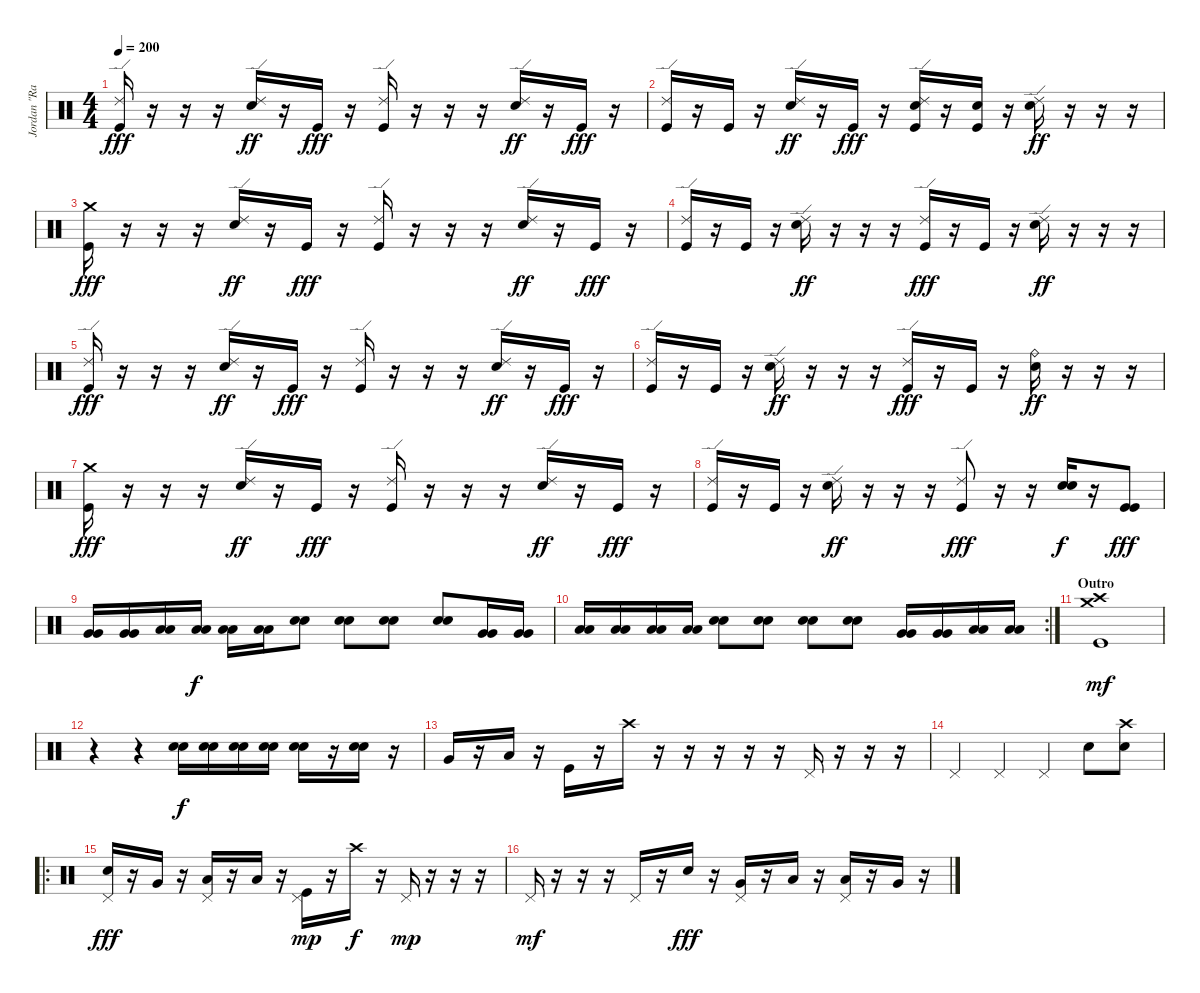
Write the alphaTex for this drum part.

\track ("Jordan \"Ratbeard\" Hastings" "Jordan \"Ra") {instrument percussion}
\staff {score}
\articulation defaults
\ts (4 4)
\tempo 200
\clef neutral
\ks c
("Ride (edge) 2" "Kick (hit)").16{dy fff} r.16 r.16 r.16 ("Ride (edge) 2" "Electric Snare (hit)").16{dy ff} r.16 "Kick (hit)".16{dy fff} r.16 ("Ride (edge) 2" "Kick (hit)").16 r.16 r.16 r.16 ("Ride (edge) 2" "Electric Snare (hit)").16{dy ff} r.16 "Kick (hit)".16{dy fff} r.16 |
("Ride (edge) 2" "Kick (hit)").16 r.16 "Kick (hit)".16 r.16 ("Ride (edge) 2" "Electric Snare (hit)").16{dy ff} r.16 "Kick (hit)".16{dy fff} r.16 ("Ride (edge) 2" "Electric Snare (hit)" "Kick (hit)").16 r.16 ("Electric Snare (hit)" "Kick (hit)").16 r.16 ("Ride (edge) 2" "Electric Snare (hit)").16{dy ff} r.16 r.16 r.16 |
("Crash medium (hit)" "Kick (hit)").16{dy fff} r.16 r.16 r.16 ("Ride (edge) 2" "Electric Snare (hit)").16{dy ff} r.16 "Kick (hit)".16{dy fff} r.16 ("Ride (edge) 2" "Kick (hit)").16 r.16 r.16 r.16 ("Ride (edge) 2" "Electric Snare (hit)").16{dy ff} r.16 "Kick (hit)".16{dy fff} r.16 |
("Ride (edge) 2" "Kick (hit)").16 r.16 "Kick (hit)".16 r.16 ("Ride (edge) 2" "Electric Snare (hit)").16{dy ff} r.16 r.16 r.16 ("Ride (edge) 2" "Kick (hit)").16{dy fff} r.16 "Kick (hit)".16 r.16 ("Ride (edge) 2" "Electric Snare (hit)").16{dy ff} r.16 r.16 r.16 |
("Ride (edge) 2" "Kick (hit)").16{dy fff} r.16 r.16 r.16 ("Ride (edge) 2" "Electric Snare (hit)").16{dy ff} r.16 "Kick (hit)".16{dy fff} r.16 ("Ride (edge) 2" "Kick (hit)").16 r.16 r.16 r.16 ("Ride (edge) 2" "Electric Snare (hit)").16{dy ff} r.16 "Kick (hit)".16{dy fff} r.16 |
("Ride (edge) 2" "Kick (hit)").16 r.16 "Kick (hit)".16 r.16 ("Ride (edge) 2" "Electric Snare (hit)").16{dy ff} r.16 r.16 r.16 ("Ride (edge) 2" "Kick (hit)").16{dy fff} r.16 "Kick (hit)".16 r.16 ("Ride (bell)" "Electric Snare (hit)").16{dy ff} r.16 r.16 r.16 |
("Crash medium (hit)" "Kick (hit)").16{dy fff} r.16 r.16 r.16 ("Ride (edge) 2" "Electric Snare (hit)").16{dy ff} r.16 "Kick (hit)".16{dy fff} r.16 ("Ride (edge) 2" "Kick (hit)").16 r.16 r.16 r.16 ("Ride (edge) 2" "Electric Snare (hit)").16{dy ff} r.16 "Kick (hit)".16{dy fff} r.16 |
("Ride (edge) 2" "Kick (hit)").16 r.16 "Kick (hit)".16 r.16 ("Ride (edge) 2" "Electric Snare (hit)").16{dy ff} r.16 r.16 r.16 ("Ride (edge) 2" "Kick (hit)").8{dy fff} r.16 r.16 ("Electric Snare (hit)" "Electric Snare (hit)").16{dy f} r.16 ("Kick (hit)" "Kick (hit)").8{dy fff} |
("Very Low Tom (hit)" "Very Low Tom (hit)").16 ("Very Low Tom (hit)" "Very Low Tom (hit)").16 ("Low Tom (hit)" "Low Tom (hit)").16 ("Low Tom (hit)" "Low Tom (hit)").16{dy f} ("Low Floor Tom (hit)" "Low Floor Tom (hit)").16 ("Low Floor Tom (hit)" "Low Floor Tom (hit)").16 ("Electric Snare (hit)" "Electric Snare (hit)").8 ("Electric Snare (hit)" "Electric Snare (hit)").8 ("Electric Snare (hit)" "Electric Snare (hit)").8 ("Electric Snare (hit)" "Electric Snare (hit)").8 ("Very Low Tom (hit)" "Very Low Tom (hit)").16 ("Very Low Tom (hit)" "Very Low Tom (hit)").16 |
\rc 2
("Low Tom (hit)" "Low Tom (hit)").16 ("Low Tom (hit)" "Low Tom (hit)").16 ("Low Floor Tom (hit)" "Low Floor Tom (hit)").16 ("Low Floor Tom (hit)" "Low Floor Tom (hit)").16 ("Electric Snare (hit)" "Electric Snare (hit)").8 ("Electric Snare (hit)" "Electric Snare (hit)").8 ("Electric Snare (hit)" "Electric Snare (hit)").8 ("Electric Snare (hit)" "Electric Snare (hit)").8 ("Very Low Tom (hit)" "Very Low Tom (hit)").16 ("Very Low Tom (hit)" "Very Low Tom (hit)").16 ("Low Tom (hit)" "Low Tom (hit)").16 ("Low Tom (hit)" "Low Tom (hit)").16 |
\section ("" "Outro")
("Crash medium (hit)" "Crash high (hit)" "Kick (hit)").1{dy mf} |
r.4 r.4 ("Electric Snare (hit)" "Electric Snare (hit)").16{dy f} ("Electric Snare (hit)" "Electric Snare (hit)").16 ("Electric Snare (hit)" "Electric Snare (hit)").16 ("Electric Snare (hit)" "Electric Snare (hit)").16 ("Electric Snare (hit)" "Electric Snare (hit)").16 r.16 ("Electric Snare (hit)" "Electric Snare (hit)").16 r.16 |
"Very Low Tom (hit)".16 r.16 "Low Tom (hit)".16 r.16 "Kick (hit)".16 r.16 "Crash high (hit)".16 r.16 r.16 r.16 r.16 r.16 "Pedal Hi-Hat (hit)".16 r.16 r.16 r.16 |
"Pedal Hi-Hat (hit)".4 "Pedal Hi-Hat (hit)".4 "Pedal Hi-Hat (hit)".4 "Electric Snare (hit)".8 ("Crash high (hit)" "Electric Snare (hit)").8 |
\ro
("Pedal Hi-Hat (hit)" "Electric Snare (hit)").16{dy fff} r.16 "Very Low Tom (hit)".16 r.16 ("Pedal Hi-Hat (hit)" "Low Tom (hit)").16 r.16 "Low Floor Tom (hit)".16 r.16 ("Pedal Hi-Hat (hit)" "Kick (hit)").16{dy mp} r.16 "Crash high (hit)".16{dy f} r.16 "Pedal Hi-Hat (hit)".16{dy mp} r.16 r.16 r.16 |
"Pedal Hi-Hat (hit)".16{dy mf} r.16 r.16 r.16 "Pedal Hi-Hat (hit)".16 r.16 "Electric Snare (hit)".16{dy fff} r.16 ("Pedal Hi-Hat (hit)" "Very Low Tom (hit)").16 r.16 "Low Tom (hit)".16 r.16 ("Pedal Hi-Hat (hit)" "Low Floor Tom (hit)").16 r.16 "Very Low Tom (hit)".16 r.16
